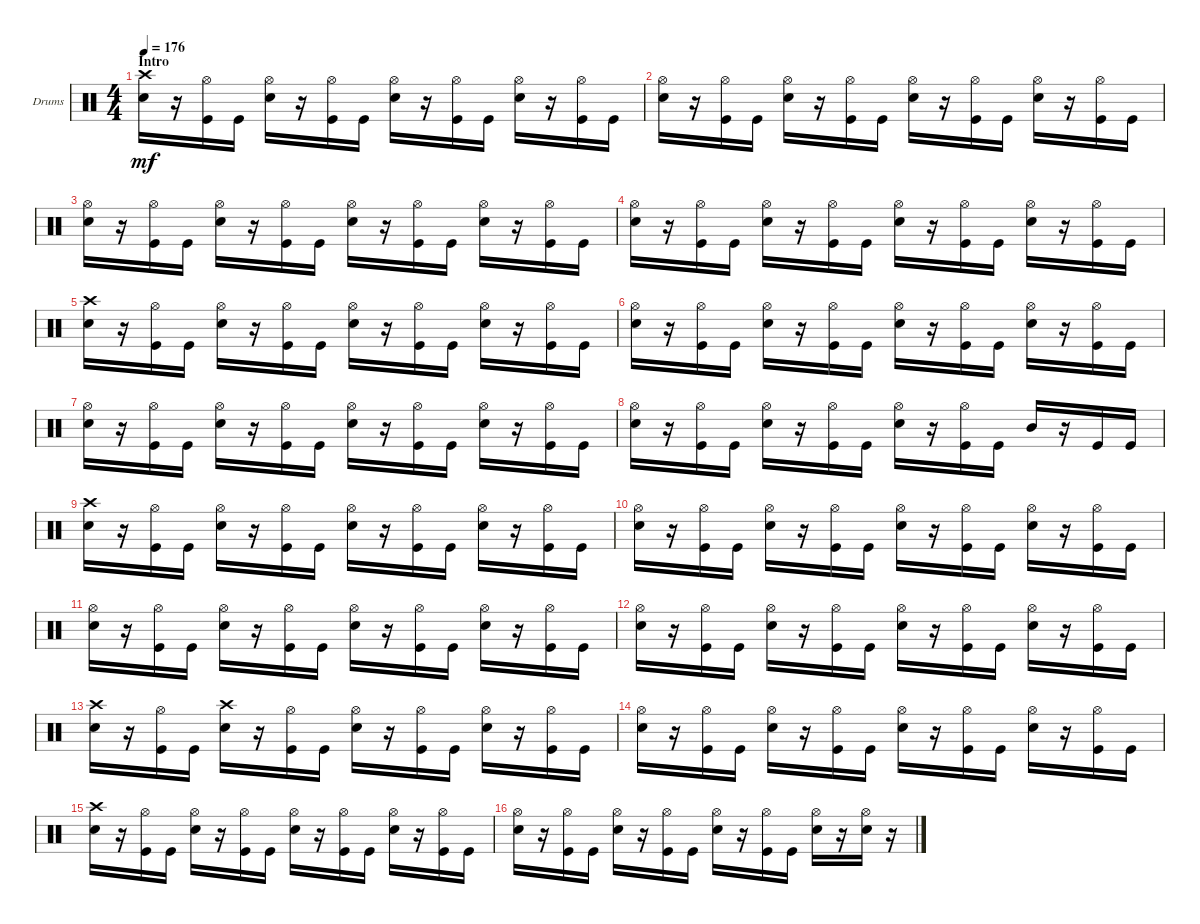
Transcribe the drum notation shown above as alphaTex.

\bracketExtendMode groupsimilarinstruments
\firstSystemTrackNameOrientation horizontal
\otherSystemsTrackNameOrientation horizontal
\track ("Drums" "Drums") {instrument percussion}
\staff {score}
\articulation defaults
\ts (4 4)
\section ("" "Intro")
\tempo 176
\clef neutral
\ks c
("Snare (hit) 2" "Crash high (hit)").16{dy mf} r.16 ("Kick (hit)" "Hi-Hat (open)").16 "Kick (hit)".16 ("Snare (hit) 2" "Hi-Hat (open)").16 r.16 ("Kick (hit)" "Hi-Hat (open)").16 "Kick (hit)".16 ("Snare (hit) 2" "Hi-Hat (open)").16 r.16 ("Kick (hit)" "Hi-Hat (open)").16 "Kick (hit)".16 ("Snare (hit) 2" "Hi-Hat (open)").16 r.16 ("Kick (hit)" "Hi-Hat (open)").16 "Kick (hit)".16 |
("Snare (hit) 2" "Hi-Hat (open)").16 r.16 ("Kick (hit)" "Hi-Hat (open)").16 "Kick (hit)".16 ("Snare (hit) 2" "Hi-Hat (open)").16 r.16 ("Kick (hit)" "Hi-Hat (open)").16 "Kick (hit)".16 ("Snare (hit) 2" "Hi-Hat (open)").16 r.16 ("Kick (hit)" "Hi-Hat (open)").16 "Kick (hit)".16 ("Snare (hit) 2" "Hi-Hat (open)").16 r.16 ("Kick (hit)" "Hi-Hat (open)").16 "Kick (hit)".16 |
("Snare (hit) 2" "Hi-Hat (open)").16 r.16 ("Kick (hit)" "Hi-Hat (open)").16 "Kick (hit)".16 ("Snare (hit) 2" "Hi-Hat (open)").16 r.16 ("Kick (hit)" "Hi-Hat (open)").16 "Kick (hit)".16 ("Snare (hit) 2" "Hi-Hat (open)").16 r.16 ("Kick (hit)" "Hi-Hat (open)").16 "Kick (hit)".16 ("Snare (hit) 2" "Hi-Hat (open)").16 r.16 ("Kick (hit)" "Hi-Hat (open)").16 "Kick (hit)".16 |
("Snare (hit) 2" "Hi-Hat (open)").16 r.16 ("Kick (hit)" "Hi-Hat (open)").16 "Kick (hit)".16 ("Snare (hit) 2" "Hi-Hat (open)").16 r.16 ("Kick (hit)" "Hi-Hat (open)").16 "Kick (hit)".16 ("Snare (hit) 2" "Hi-Hat (open)").16 r.16 ("Kick (hit)" "Hi-Hat (open)").16 "Kick (hit)".16 ("Snare (hit) 2" "Hi-Hat (open)").16 r.16 ("Kick (hit)" "Hi-Hat (open)").16 "Kick (hit)".16 |
("Snare (hit) 2" "Crash high (hit)").16 r.16 ("Kick (hit)" "Hi-Hat (open)").16 "Kick (hit)".16 ("Snare (hit) 2" "Hi-Hat (open)").16 r.16 ("Kick (hit)" "Hi-Hat (open)").16 "Kick (hit)".16 ("Snare (hit) 2" "Hi-Hat (open)").16 r.16 ("Kick (hit)" "Hi-Hat (open)").16 "Kick (hit)".16 ("Snare (hit) 2" "Hi-Hat (open)").16 r.16 ("Kick (hit)" "Hi-Hat (open)").16 "Kick (hit)".16 |
("Snare (hit) 2" "Hi-Hat (open)").16 r.16 ("Kick (hit)" "Hi-Hat (open)").16 "Kick (hit)".16 ("Snare (hit) 2" "Hi-Hat (open)").16 r.16 ("Kick (hit)" "Hi-Hat (open)").16 "Kick (hit)".16 ("Snare (hit) 2" "Hi-Hat (open)").16 r.16 ("Kick (hit)" "Hi-Hat (open)").16 "Kick (hit)".16 ("Snare (hit) 2" "Hi-Hat (open)").16 r.16 ("Kick (hit)" "Hi-Hat (open)").16 "Kick (hit)".16 |
("Snare (hit) 2" "Hi-Hat (open)").16 r.16 ("Kick (hit)" "Hi-Hat (open)").16 "Kick (hit)".16 ("Snare (hit) 2" "Hi-Hat (open)").16 r.16 ("Kick (hit)" "Hi-Hat (open)").16 "Kick (hit)".16 ("Snare (hit) 2" "Hi-Hat (open)").16 r.16 ("Kick (hit)" "Hi-Hat (open)").16 "Kick (hit)".16 ("Snare (hit) 2" "Hi-Hat (open)").16 r.16 ("Kick (hit)" "Hi-Hat (open)").16 "Kick (hit)".16 |
("Snare (hit) 2" "Hi-Hat (open)").16 r.16 ("Kick (hit)" "Hi-Hat (open)").16 "Kick (hit)".16 ("Snare (hit) 2" "Hi-Hat (open)").16 r.16 ("Kick (hit)" "Hi-Hat (open)").16 "Kick (hit)".16 ("Snare (hit) 2" "Hi-Hat (open)").16 r.16 ("Kick (hit)" "Hi-Hat (open)").16 "Kick (hit)".16 "Mid Tom (hit)".16 r.16 "Kick (hit)".16 "Kick (hit)".16 |
("Crash high (hit)" "Snare (hit) 2").16 r.16 ("Kick (hit)" "Hi-Hat (open)").16 "Kick (hit)".16 ("Snare (hit) 2" "Hi-Hat (open)").16 r.16 ("Kick (hit)" "Hi-Hat (open)").16 "Kick (hit)".16 ("Snare (hit) 2" "Hi-Hat (open)").16 r.16 ("Kick (hit)" "Hi-Hat (open)").16 "Kick (hit)".16 ("Snare (hit) 2" "Hi-Hat (open)").16 r.16 ("Kick (hit)" "Hi-Hat (open)").16 "Kick (hit)".16 |
("Snare (hit) 2" "Hi-Hat (open)").16 r.16 ("Kick (hit)" "Hi-Hat (open)").16 "Kick (hit)".16 ("Snare (hit) 2" "Hi-Hat (open)").16 r.16 ("Kick (hit)" "Hi-Hat (open)").16 "Kick (hit)".16 ("Snare (hit) 2" "Hi-Hat (open)").16 r.16 ("Kick (hit)" "Hi-Hat (open)").16 "Kick (hit)".16 ("Snare (hit) 2" "Hi-Hat (open)").16 r.16 ("Kick (hit)" "Hi-Hat (open)").16 "Kick (hit)".16 |
("Snare (hit) 2" "Hi-Hat (open)").16 r.16 ("Kick (hit)" "Hi-Hat (open)").16 "Kick (hit)".16 ("Snare (hit) 2" "Hi-Hat (open)").16 r.16 ("Kick (hit)" "Hi-Hat (open)").16 "Kick (hit)".16 ("Snare (hit) 2" "Hi-Hat (open)").16 r.16 ("Kick (hit)" "Hi-Hat (open)").16 "Kick (hit)".16 ("Snare (hit) 2" "Hi-Hat (open)").16 r.16 ("Kick (hit)" "Hi-Hat (open)").16 "Kick (hit)".16 |
("Snare (hit) 2" "Hi-Hat (open)").16 r.16 ("Kick (hit)" "Hi-Hat (open)").16 "Kick (hit)".16 ("Snare (hit) 2" "Hi-Hat (open)").16 r.16 ("Kick (hit)" "Hi-Hat (open)").16 "Kick (hit)".16 ("Snare (hit) 2" "Hi-Hat (open)").16 r.16 ("Kick (hit)" "Hi-Hat (open)").16 "Kick (hit)".16 ("Snare (hit) 2" "Hi-Hat (open)").16 r.16 ("Kick (hit)" "Hi-Hat (open)").16 "Kick (hit)".16 |
("Snare (hit) 2" "Crash high (hit)").16 r.16 ("Kick (hit)" "Hi-Hat (open)").16 "Kick (hit)".16 ("Snare (hit) 2" "Crash high (hit)").16 r.16 ("Kick (hit)" "Hi-Hat (open)").16 "Kick (hit)".16 ("Snare (hit) 2" "Hi-Hat (open)").16 r.16 ("Kick (hit)" "Hi-Hat (open)").16 "Kick (hit)".16 ("Snare (hit) 2" "Hi-Hat (open)").16 r.16 ("Kick (hit)" "Hi-Hat (open)").16 "Kick (hit)".16 |
("Snare (hit) 2" "Hi-Hat (open)").16 r.16 ("Kick (hit)" "Hi-Hat (open)").16 "Kick (hit)".16 ("Snare (hit) 2" "Hi-Hat (open)").16 r.16 ("Kick (hit)" "Hi-Hat (open)").16 "Kick (hit)".16 ("Snare (hit) 2" "Hi-Hat (open)").16 r.16 ("Kick (hit)" "Hi-Hat (open)").16 "Kick (hit)".16 ("Snare (hit) 2" "Hi-Hat (open)").16 r.16 ("Kick (hit)" "Hi-Hat (open)").16 "Kick (hit)".16 |
("Snare (hit) 2" "Crash high (hit)").16 r.16 ("Kick (hit)" "Hi-Hat (open)").16 "Kick (hit)".16 ("Snare (hit) 2" "Hi-Hat (open)").16 r.16 ("Kick (hit)" "Hi-Hat (open)").16 "Kick (hit)".16 ("Snare (hit) 2" "Hi-Hat (open)").16 r.16 ("Kick (hit)" "Hi-Hat (open)").16 "Kick (hit)".16 ("Snare (hit) 2" "Hi-Hat (open)").16 r.16 ("Kick (hit)" "Hi-Hat (open)").16 "Kick (hit)".16 |
("Snare (hit) 2" "Hi-Hat (open)").16 r.16 ("Kick (hit)" "Hi-Hat (open)").16 "Kick (hit)".16 ("Snare (hit) 2" "Hi-Hat (open)").16 r.16 ("Kick (hit)" "Hi-Hat (open)").16 "Kick (hit)".16 ("Snare (hit) 2" "Hi-Hat (open)").16 r.16 ("Kick (hit)" "Hi-Hat (open)").16 "Kick (hit)".16 ("Snare (hit) 2" "Hi-Hat (open)").16 r.16 ("Hi-Hat (open)" "Snare (hit) 2").16 r.16
